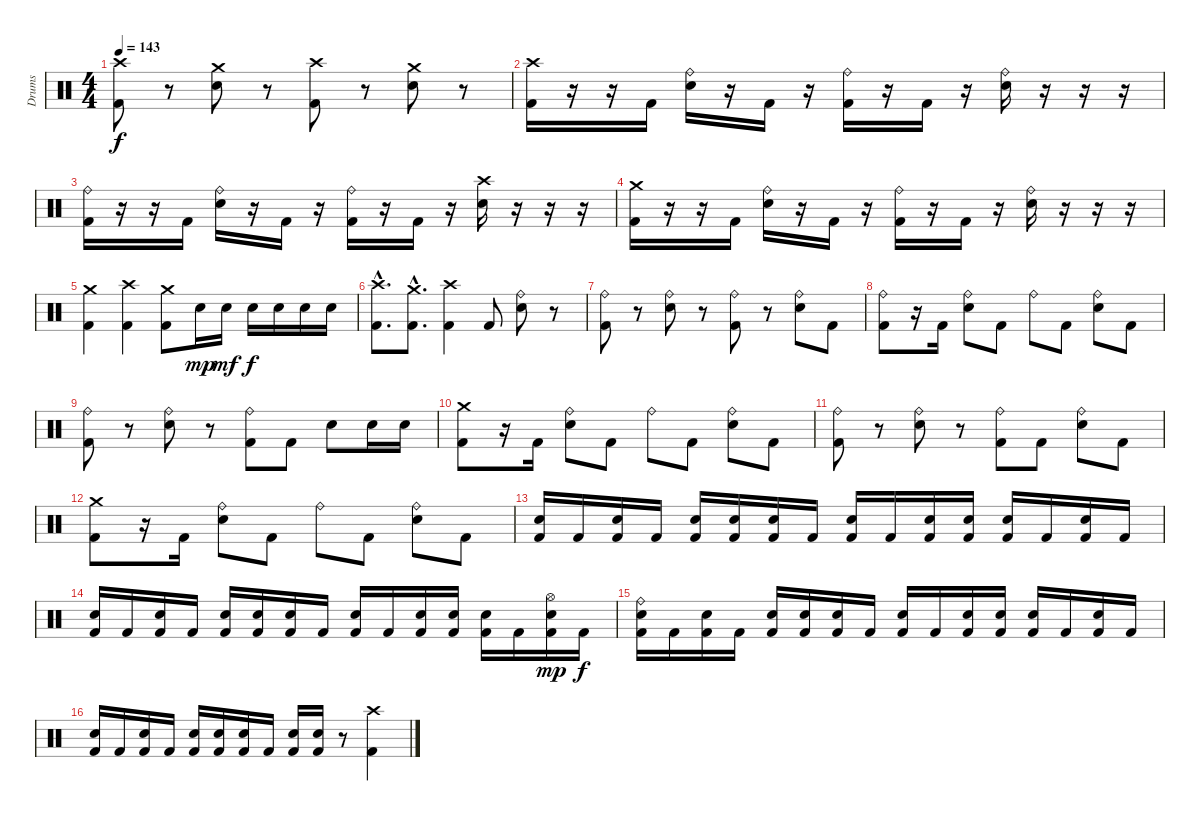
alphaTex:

\track ("Drums" "Drums") {instrument percussion}
\staff {score}
\articulation defaults
\ts (4 4)
\tempo 143
\clef neutral
\ks c
("Crash high (hit)" "Kick (hit) 2").8{dy f} r.8 ("Crash medium (hit)" "Electric Snare (hit)").8 r.8 ("Crash high (hit)" "Kick (hit) 2").8 r.8 ("Crash medium (hit)" "Electric Snare (hit)").8 r.8 |
("Crash high (hit)" "Kick (hit) 2").16 r.16 r.16 "Kick (hit) 2".16 ("Ride (bell)" "Electric Snare (hit)").16 r.16 "Kick (hit) 2".16 r.16 ("Ride (bell)" "Kick (hit) 2").16 r.16 "Kick (hit) 2".16 r.16 ("Ride (bell)" "Electric Snare (hit)").16 r.16 r.16 r.16 |
("Ride (bell)" "Kick (hit) 2").16 r.16 r.16 "Kick (hit) 2".16 ("Ride (bell)" "Electric Snare (hit)").16 r.16 "Kick (hit) 2".16 r.16 ("Ride (bell)" "Kick (hit) 2").16 r.16 "Kick (hit) 2".16 r.16 ("Crash high (hit)" "Electric Snare (hit)").16 r.16 r.16 r.16 |
("Crash medium (hit)" "Kick (hit) 2").16 r.16 r.16 "Kick (hit) 2".16 ("Ride (bell)" "Electric Snare (hit)").16 r.16 "Kick (hit) 2".16 r.16 ("Ride (bell)" "Kick (hit) 2").16 r.16 "Kick (hit) 2".16 r.16 ("Ride (bell)" "Electric Snare (hit)").16 r.16 r.16 r.16 |
("Crash medium (hit)" "Kick (hit) 2").4 ("Crash high (hit)" "Kick (hit) 2").4 ("Crash medium (hit)" "Kick (hit) 2").8 "Electric Snare (hit)".16{dy mp} "Electric Snare (hit)".16{dy mf} "Electric Snare (hit)".16{dy f} "Electric Snare (hit)".16 "Electric Snare (hit)".16 "Electric Snare (hit)".16 |
("Crash high (hit)"{hac} "Kick (hit) 2"{hac}).8{d} ("Crash medium (hit)"{hac} "Kick (hit) 2"{hac}).8{d} ("Crash high (hit)" "Kick (hit) 2").4 "Kick (hit) 2".8 ("Ride (bell)" "Electric Snare (hit)").8 r.8 |
("Ride (bell)" "Kick (hit) 2").8 r.8 ("Ride (bell)" "Electric Snare (hit)").8 r.8 ("Ride (bell)" "Kick (hit) 2").8 r.8 ("Ride (bell)" "Electric Snare (hit)").8 "Kick (hit) 2".8 |
("Ride (bell)" "Kick (hit) 2").8 r.16 "Kick (hit) 2".16 ("Ride (bell)" "Electric Snare (hit)").8 "Kick (hit) 2".8 "Ride (bell)".8 "Kick (hit) 2".8 ("Ride (bell)" "Electric Snare (hit)").8 "Kick (hit) 2".8 |
("Ride (bell)" "Kick (hit) 2").8 r.8 ("Ride (bell)" "Electric Snare (hit)").8 r.8 ("Ride (bell)" "Kick (hit) 2").8 "Kick (hit) 2".8 "Electric Snare (hit)".8 "Electric Snare (hit)".16 "Electric Snare (hit)".16 |
("Crash medium (hit)" "Kick (hit) 2").8 r.16 "Kick (hit) 2".16 ("Ride (bell)" "Electric Snare (hit)").8 "Kick (hit) 2".8 "Ride (bell)".8 "Kick (hit) 2".8 ("Ride (bell)" "Electric Snare (hit)").8 "Kick (hit) 2".8 |
("Ride (bell)" "Kick (hit) 2").8 r.8 ("Ride (bell)" "Electric Snare (hit)").8 r.8 ("Ride (bell)" "Kick (hit) 2").8 "Kick (hit) 2".8 ("Ride (bell)" "Electric Snare (hit)").8 "Kick (hit) 2".8 |
("Crash medium (hit)" "Kick (hit) 2").8 r.16 "Kick (hit) 2".16 ("Ride (bell)" "Electric Snare (hit)").8 "Kick (hit) 2".8 "Ride (bell)".8 "Kick (hit) 2".8 ("Ride (bell)" "Electric Snare (hit)").8 "Kick (hit) 2".8 |
("Electric Snare (hit)" "Kick (hit) 2").16 "Kick (hit) 2".16 ("Electric Snare (hit)" "Kick (hit) 2").16 "Kick (hit) 2".16 ("Electric Snare (hit)" "Kick (hit) 2").16 ("Electric Snare (hit)" "Kick (hit) 2").16 ("Electric Snare (hit)" "Kick (hit) 2").16 "Kick (hit) 2".16 ("Electric Snare (hit)" "Kick (hit) 2").16 "Kick (hit) 2".16 ("Electric Snare (hit)" "Kick (hit) 2").16 ("Electric Snare (hit)" "Kick (hit) 2").16 ("Electric Snare (hit)" "Kick (hit) 2").16 "Kick (hit) 2".16 ("Electric Snare (hit)" "Kick (hit) 2").16 "Kick (hit) 2".16 |
("Electric Snare (hit)" "Kick (hit) 2").16 "Kick (hit) 2".16 ("Electric Snare (hit)" "Kick (hit) 2").16 "Kick (hit) 2".16 ("Electric Snare (hit)" "Kick (hit) 2").16 ("Electric Snare (hit)" "Kick (hit) 2").16 ("Electric Snare (hit)" "Kick (hit) 2").16 "Kick (hit) 2".16 ("Electric Snare (hit)" "Kick (hit) 2").16 "Kick (hit) 2".16 ("Electric Snare (hit)" "Kick (hit) 2").16 ("Electric Snare (hit)" "Kick (hit) 2").16 ("Electric Snare (hit)" "Kick (hit) 2").16 "Kick (hit) 2".16 ("Hi-Hat (open)" "Electric Snare (hit)" "Kick (hit) 2").16{dy mp} "Kick (hit) 2".16{dy f} |
("Ride (bell)" "Electric Snare (hit)" "Kick (hit) 2").16 "Kick (hit) 2".16 ("Electric Snare (hit)" "Kick (hit) 2").16 "Kick (hit) 2".16 ("Electric Snare (hit)" "Kick (hit) 2").16 ("Electric Snare (hit)" "Kick (hit) 2").16 ("Electric Snare (hit)" "Kick (hit) 2").16 "Kick (hit) 2".16 ("Electric Snare (hit)" "Kick (hit) 2").16 "Kick (hit) 2".16 ("Electric Snare (hit)" "Kick (hit) 2").16 ("Electric Snare (hit)" "Kick (hit) 2").16 ("Electric Snare (hit)" "Kick (hit) 2").16 "Kick (hit) 2".16 ("Electric Snare (hit)" "Kick (hit) 2").16 "Kick (hit) 2".16 |
("Electric Snare (hit)" "Kick (hit) 2").16 "Kick (hit) 2".16 ("Electric Snare (hit)" "Kick (hit) 2").16 "Kick (hit) 2".16 ("Electric Snare (hit)" "Kick (hit) 2").16 ("Electric Snare (hit)" "Kick (hit) 2").16 ("Electric Snare (hit)" "Kick (hit) 2").16 "Kick (hit) 2".16 ("Electric Snare (hit)" "Kick (hit) 2").16 ("Electric Snare (hit)" "Kick (hit) 2").16 r.8 ("Crash high (hit)" "Kick (hit) 2").4
